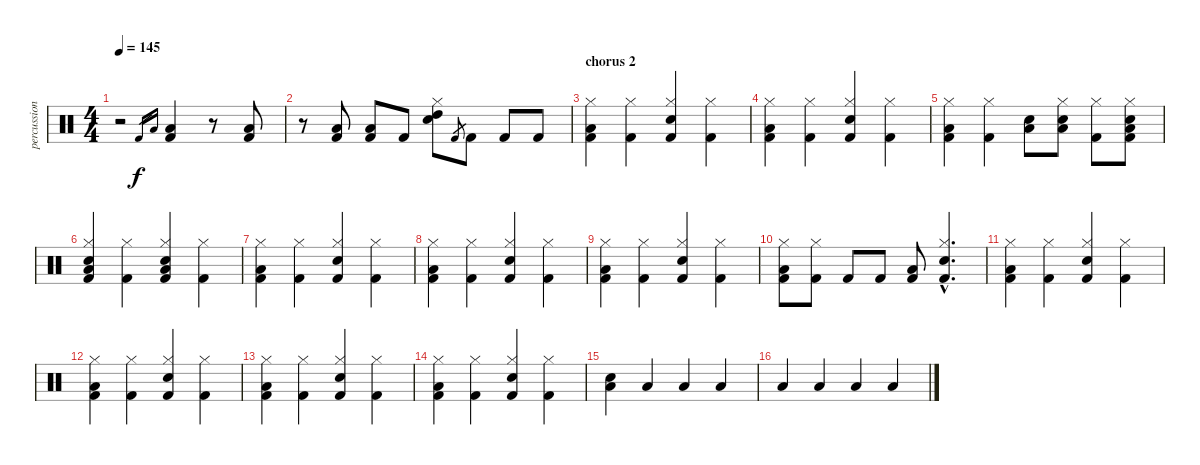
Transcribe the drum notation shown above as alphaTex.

\track ("percussion" "percussion") {instrument percussion}
\staff {score}
\articulation defaults
\ts (4 4)
\tempo 145
\clef neutral
\ks c
r.2{dy f} "Kick (hit) 2".16{gr} "Low Tom (hit)".16{gr} ("Kick (hit) 2" "Low Tom (hit)").4 r.8 ("Kick (hit) 2" "Low Tom (hit)").8 |
r.8 ("Kick (hit) 2" "Low Tom (hit)").8 ("Kick (hit) 2" "Low Tom (hit)").8 "Kick (hit) 2".8 ("Hi-Hat (closed)" "Snare (hit) 2" "High Tom (hit)").8 "Kick (hit) 2".8{gr} "Kick (hit) 2".8 "Kick (hit) 2".8 "Kick (hit) 2".8 |
\section ("" "chorus 2")
("Kick (hit) 2" "Low Tom (hit)" "Hi-Hat (closed)").4 ("Kick (hit) 2" "Hi-Hat (closed)").4 ("Snare (hit) 2" "Kick (hit) 2" "Hi-Hat (closed)").4 ("Kick (hit) 2" "Hi-Hat (closed)").4 |
("Kick (hit) 2" "Low Tom (hit)" "Hi-Hat (closed)").4 ("Kick (hit) 2" "Hi-Hat (closed)").4 ("Snare (hit) 2" "Kick (hit) 2" "Hi-Hat (closed)").4 ("Kick (hit) 2" "Hi-Hat (closed)").4 |
("Kick (hit) 2" "Low Tom (hit)" "Hi-Hat (closed)").4 ("Kick (hit) 2" "Hi-Hat (closed)").4 ("Snare (hit) 2" "Low Tom (hit)").8 ("Snare (hit) 2" "Low Tom (hit)" "Hi-Hat (closed)").8 ("Kick (hit) 2" "Hi-Hat (closed)").8 ("Snare (hit) 2" "Kick (hit) 2" "Low Tom (hit)" "Hi-Hat (closed)").8 |
("Snare (hit) 2" "Kick (hit) 2" "Low Tom (hit)" "Hi-Hat (closed)").4 ("Kick (hit) 2" "Hi-Hat (closed)").4 ("Snare (hit) 2" "Kick (hit) 2" "Low Tom (hit)" "Hi-Hat (closed)").4 ("Kick (hit) 2" "Hi-Hat (closed)").4 |
("Kick (hit) 2" "Low Tom (hit)" "Hi-Hat (closed)").4 ("Kick (hit) 2" "Hi-Hat (closed)").4 ("Snare (hit) 2" "Kick (hit) 2" "Hi-Hat (closed)").4 ("Kick (hit) 2" "Hi-Hat (closed)").4 |
("Kick (hit) 2" "Low Tom (hit)" "Hi-Hat (closed)").4 ("Kick (hit) 2" "Hi-Hat (closed)").4 ("Snare (hit) 2" "Kick (hit) 2" "Hi-Hat (closed)").4 ("Kick (hit) 2" "Hi-Hat (closed)").4 |
("Kick (hit) 2" "Low Tom (hit)" "Hi-Hat (closed)").4 ("Kick (hit) 2" "Hi-Hat (closed)").4 ("Snare (hit) 2" "Kick (hit) 2" "Hi-Hat (closed)").4 ("Kick (hit) 2" "Hi-Hat (closed)").4 |
("Kick (hit) 2" "Low Tom (hit)" "Hi-Hat (closed)").8 ("Kick (hit) 2" "Hi-Hat (closed)").8 "Kick (hit) 2".8 "Kick (hit) 2".8 ("Kick (hit) 2" "Low Tom (hit)").8 ("Snare (hit) 2"{hac} "Kick (hit) 2"{hac} "Hi-Hat (closed)"{hac}).4{d} |
("Kick (hit) 2" "Low Tom (hit)" "Hi-Hat (closed)").4 ("Kick (hit) 2" "Hi-Hat (closed)").4 ("Snare (hit) 2" "Kick (hit) 2" "Hi-Hat (closed)").4 ("Kick (hit) 2" "Hi-Hat (closed)").4 |
("Kick (hit) 2" "Low Tom (hit)" "Hi-Hat (closed)").4 ("Kick (hit) 2" "Hi-Hat (closed)").4 ("Snare (hit) 2" "Kick (hit) 2" "Hi-Hat (closed)").4 ("Kick (hit) 2" "Hi-Hat (closed)").4 |
("Kick (hit) 2" "Low Tom (hit)" "Hi-Hat (closed)").4 ("Kick (hit) 2" "Hi-Hat (closed)").4 ("Snare (hit) 2" "Kick (hit) 2" "Hi-Hat (closed)").4 ("Kick (hit) 2" "Hi-Hat (closed)").4 |
("Kick (hit) 2" "Low Tom (hit)" "Hi-Hat (closed)").4 ("Kick (hit) 2" "Hi-Hat (closed)").4 ("Snare (hit) 2" "Kick (hit) 2" "Hi-Hat (closed)").4 ("Kick (hit) 2" "Hi-Hat (closed)").4 |
("Snare (hit) 2" "Low Tom (hit)").4 "Low Tom (hit)".4 "Low Tom (hit)".4 "Low Tom (hit)".4 |
"Low Tom (hit)".4 "Low Tom (hit)".4 "Low Tom (hit)".4 "Low Tom (hit)".4
